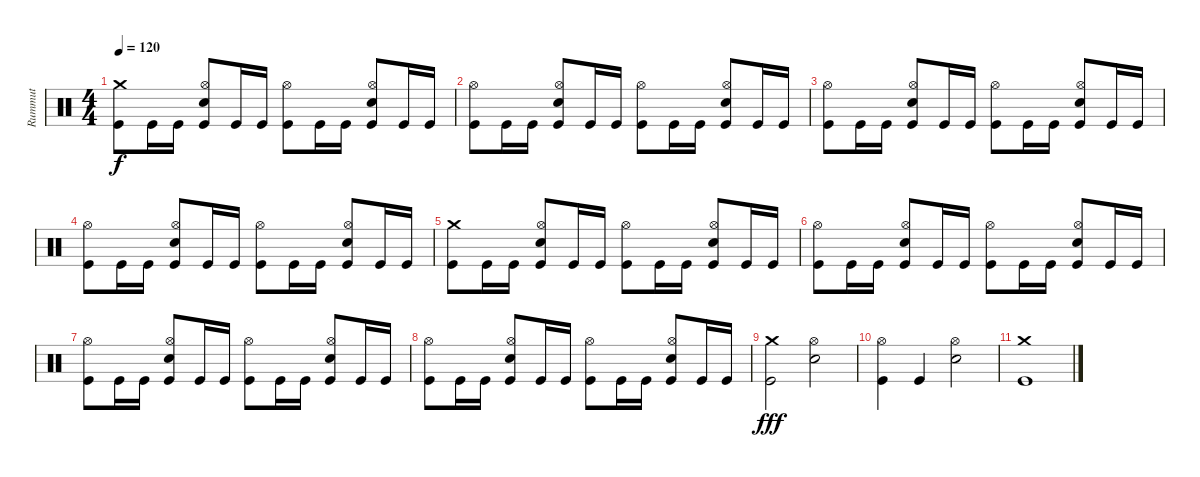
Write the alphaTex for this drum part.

\track ("Rummut" "Rummut") {instrument percussion}
\staff {score}
\articulation defaults
\ts (4 4)
\tempo 120
\clef neutral
\ks c
("Crash medium (hit)" "Kick (hit)").8{dy f} "Kick (hit)".16 "Kick (hit)".16 ("Hi-Hat (open)" "Snare (hit) 2" "Kick (hit)").8 "Kick (hit)".16 "Kick (hit)".16 ("Hi-Hat (open)" "Kick (hit)").8 "Kick (hit)".16 "Kick (hit)".16 ("Hi-Hat (open)" "Snare (hit) 2" "Kick (hit)").8 "Kick (hit)".16 "Kick (hit)".16 |
("Hi-Hat (open)" "Kick (hit)").8 "Kick (hit)".16 "Kick (hit)".16 ("Hi-Hat (open)" "Snare (hit) 2" "Kick (hit)").8 "Kick (hit)".16 "Kick (hit)".16 ("Hi-Hat (open)" "Kick (hit)").8 "Kick (hit)".16 "Kick (hit)".16 ("Hi-Hat (open)" "Snare (hit) 2" "Kick (hit)").8 "Kick (hit)".16 "Kick (hit)".16 |
("Hi-Hat (open)" "Kick (hit)").8 "Kick (hit)".16 "Kick (hit)".16 ("Hi-Hat (open)" "Snare (hit) 2" "Kick (hit)").8 "Kick (hit)".16 "Kick (hit)".16 ("Hi-Hat (open)" "Kick (hit)").8 "Kick (hit)".16 "Kick (hit)".16 ("Hi-Hat (open)" "Snare (hit) 2" "Kick (hit)").8 "Kick (hit)".16 "Kick (hit)".16 |
("Hi-Hat (open)" "Kick (hit)").8 "Kick (hit)".16 "Kick (hit)".16 ("Hi-Hat (open)" "Snare (hit) 2" "Kick (hit)").8 "Kick (hit)".16 "Kick (hit)".16 ("Hi-Hat (open)" "Kick (hit)").8 "Kick (hit)".16 "Kick (hit)".16 ("Hi-Hat (open)" "Snare (hit) 2" "Kick (hit)").8 "Kick (hit)".16 "Kick (hit)".16 |
("Crash medium (hit)" "Kick (hit)").8 "Kick (hit)".16 "Kick (hit)".16 ("Hi-Hat (open)" "Snare (hit) 2" "Kick (hit)").8 "Kick (hit)".16 "Kick (hit)".16 ("Hi-Hat (open)" "Kick (hit)").8 "Kick (hit)".16 "Kick (hit)".16 ("Hi-Hat (open)" "Snare (hit) 2" "Kick (hit)").8 "Kick (hit)".16 "Kick (hit)".16 |
("Hi-Hat (open)" "Kick (hit)").8 "Kick (hit)".16 "Kick (hit)".16 ("Hi-Hat (open)" "Snare (hit) 2" "Kick (hit)").8 "Kick (hit)".16 "Kick (hit)".16 ("Hi-Hat (open)" "Kick (hit)").8 "Kick (hit)".16 "Kick (hit)".16 ("Hi-Hat (open)" "Snare (hit) 2" "Kick (hit)").8 "Kick (hit)".16 "Kick (hit)".16 |
("Hi-Hat (open)" "Kick (hit)").8 "Kick (hit)".16 "Kick (hit)".16 ("Hi-Hat (open)" "Snare (hit) 2" "Kick (hit)").8 "Kick (hit)".16 "Kick (hit)".16 ("Hi-Hat (open)" "Kick (hit)").8 "Kick (hit)".16 "Kick (hit)".16 ("Hi-Hat (open)" "Snare (hit) 2" "Kick (hit)").8 "Kick (hit)".16 "Kick (hit)".16 |
("Hi-Hat (open)" "Kick (hit)").8 "Kick (hit)".16 "Kick (hit)".16 ("Hi-Hat (open)" "Snare (hit) 2" "Kick (hit)").8 "Kick (hit)".16 "Kick (hit)".16 ("Hi-Hat (open)" "Kick (hit)").8 "Kick (hit)".16 "Kick (hit)".16 ("Hi-Hat (open)" "Snare (hit) 2" "Kick (hit)").8 "Kick (hit)".16 "Kick (hit)".16 |
("Crash medium (hit)" "Kick (hit)").2{dy fff} ("Hi-Hat (open)" "Snare (hit) 2").2 |
("Hi-Hat (open)" "Kick (hit)").4 "Kick (hit)".4 ("Hi-Hat (open)" "Snare (hit) 2").2 |
("Crash medium (hit)" "Kick (hit)").1
